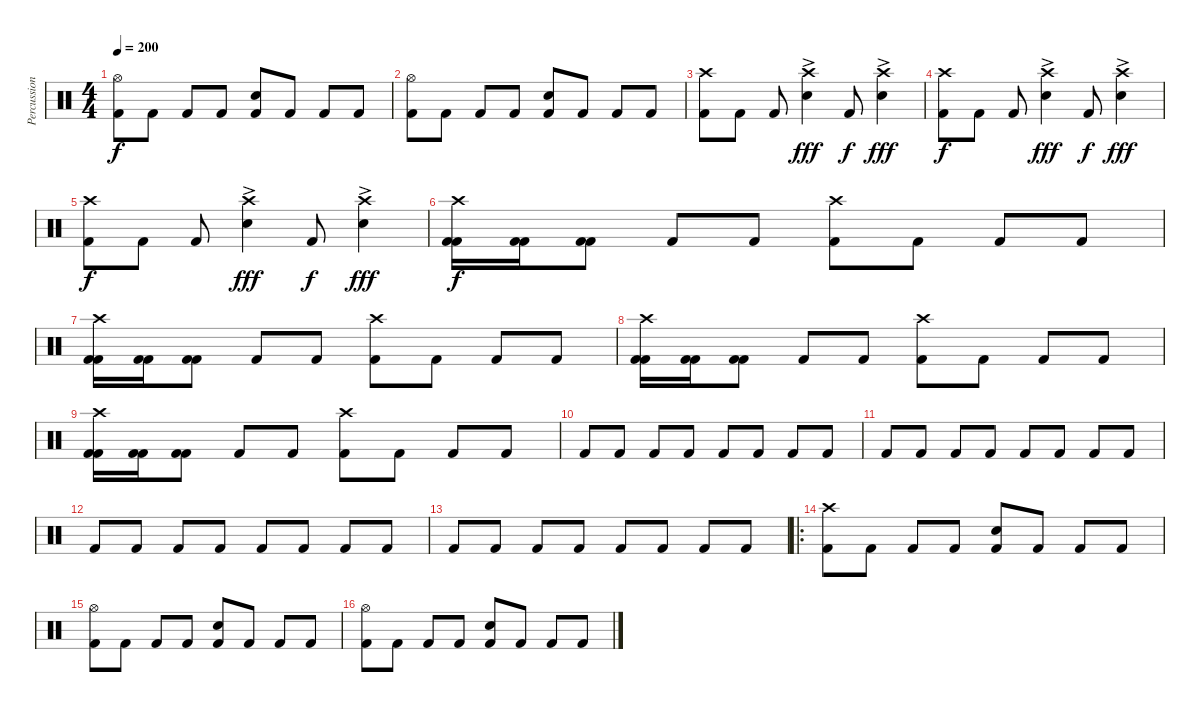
\track ("Percussion" "Percussion") {instrument percussion}
\staff {score}
\articulation defaults
\ts (4 4)
\tempo 200
\clef neutral
\ks c
("Hi-Hat (open)" "Kick (hit) 2").8{dy f} "Kick (hit) 2".8 "Kick (hit) 2".8 "Kick (hit) 2".8 ("Electric Snare (hit)" "Kick (hit) 2").8 "Kick (hit) 2".8 "Kick (hit) 2".8 "Kick (hit) 2".8 |
("Hi-Hat (open)" "Kick (hit) 2").8 "Kick (hit) 2".8 "Kick (hit) 2".8 "Kick (hit) 2".8 ("Electric Snare (hit)" "Kick (hit) 2").8 "Kick (hit) 2".8 "Kick (hit) 2".8 "Kick (hit) 2".8 |
("Crash high (hit)" "Kick (hit) 2").8 "Kick (hit) 2".8 "Kick (hit) 2".8 ("Crash high (hit)" "Electric Snare (hit)"{ac}).4{dy fff} "Kick (hit) 2".8{dy f} ("Crash high (hit)" "Electric Snare (hit)"{ac}).4{dy fff} |
("Crash high (hit)" "Kick (hit) 2").8{dy f} "Kick (hit) 2".8 "Kick (hit) 2".8 ("Crash high (hit)" "Electric Snare (hit)"{ac}).4{dy fff} "Kick (hit) 2".8{dy f} ("Crash high (hit)" "Electric Snare (hit)"{ac}).4{dy fff} |
("Crash high (hit)" "Kick (hit) 2").8{dy f} "Kick (hit) 2".8 "Kick (hit) 2".8 ("Crash high (hit)" "Electric Snare (hit)"{ac}).4{dy fff} "Kick (hit) 2".8{dy f} ("Crash high (hit)" "Electric Snare (hit)"{ac}).4{dy fff} |
("Crash high (hit)" "Kick (hit) 2" "Kick (hit) 2").16{dy f} ("Kick (hit) 2" "Kick (hit) 2").16 ("Kick (hit) 2" "Kick (hit) 2").8 "Kick (hit) 2".8 "Kick (hit) 2".8 ("Crash high (hit)" "Kick (hit) 2").8 "Kick (hit) 2".8 "Kick (hit) 2".8 "Kick (hit) 2".8 |
("Crash high (hit)" "Kick (hit) 2" "Kick (hit) 2").16 ("Kick (hit) 2" "Kick (hit) 2").16 ("Kick (hit) 2" "Kick (hit) 2").8 "Kick (hit) 2".8 "Kick (hit) 2".8 ("Crash high (hit)" "Kick (hit) 2").8 "Kick (hit) 2".8 "Kick (hit) 2".8 "Kick (hit) 2".8 |
("Crash high (hit)" "Kick (hit) 2" "Kick (hit) 2").16 ("Kick (hit) 2" "Kick (hit) 2").16 ("Kick (hit) 2" "Kick (hit) 2").8 "Kick (hit) 2".8 "Kick (hit) 2".8 ("Crash high (hit)" "Kick (hit) 2").8 "Kick (hit) 2".8 "Kick (hit) 2".8 "Kick (hit) 2".8 |
("Crash high (hit)" "Kick (hit) 2" "Kick (hit) 2").16 ("Kick (hit) 2" "Kick (hit) 2").16 ("Kick (hit) 2" "Kick (hit) 2").8 "Kick (hit) 2".8 "Kick (hit) 2".8 ("Crash high (hit)" "Kick (hit) 2").8 "Kick (hit) 2".8 "Kick (hit) 2".8 "Kick (hit) 2".8 |
"Kick (hit) 2".8 "Kick (hit) 2".8 "Kick (hit) 2".8 "Kick (hit) 2".8 "Kick (hit) 2".8 "Kick (hit) 2".8 "Kick (hit) 2".8 "Kick (hit) 2".8 |
"Kick (hit) 2".8 "Kick (hit) 2".8 "Kick (hit) 2".8 "Kick (hit) 2".8 "Kick (hit) 2".8 "Kick (hit) 2".8 "Kick (hit) 2".8 "Kick (hit) 2".8 |
"Kick (hit) 2".8 "Kick (hit) 2".8 "Kick (hit) 2".8 "Kick (hit) 2".8 "Kick (hit) 2".8 "Kick (hit) 2".8 "Kick (hit) 2".8 "Kick (hit) 2".8 |
"Kick (hit) 2".8 "Kick (hit) 2".8 "Kick (hit) 2".8 "Kick (hit) 2".8 "Kick (hit) 2".8 "Kick (hit) 2".8 "Kick (hit) 2".8 "Kick (hit) 2".8 |
\ro
("Crash high (hit)" "Kick (hit) 2").8 "Kick (hit) 2".8 "Kick (hit) 2".8 "Kick (hit) 2".8 ("Electric Snare (hit)" "Kick (hit) 2").8 "Kick (hit) 2".8 "Kick (hit) 2".8 "Kick (hit) 2".8 |
("Hi-Hat (open)" "Kick (hit) 2").8 "Kick (hit) 2".8 "Kick (hit) 2".8 "Kick (hit) 2".8 ("Electric Snare (hit)" "Kick (hit) 2").8 "Kick (hit) 2".8 "Kick (hit) 2".8 "Kick (hit) 2".8 |
("Hi-Hat (open)" "Kick (hit) 2").8 "Kick (hit) 2".8 "Kick (hit) 2".8 "Kick (hit) 2".8 ("Electric Snare (hit)" "Kick (hit) 2").8 "Kick (hit) 2".8 "Kick (hit) 2".8 "Kick (hit) 2".8
